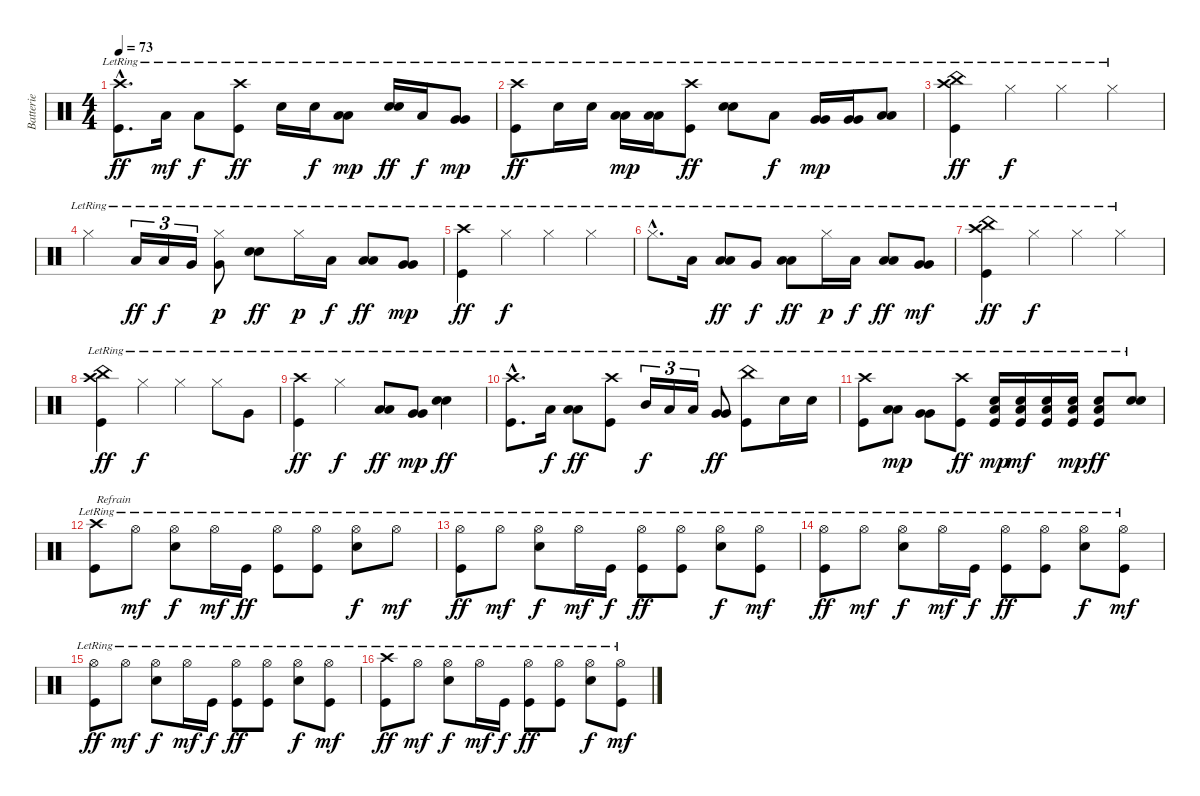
\track ("Batterie" "Batterie") {instrument percussion}
\staff {score}
\articulation defaults
\ts (4 4)
\tempo 73
\clef neutral
\ks c
("Crash high (hit)"{hac lr} "Kick (hit)"{hac lr}).8{d dy ff} "Low Tom (hit)"{lr}.16{dy mf} "Low Tom (hit)"{lr}.8{dy f} ("Crash high (hit)"{lr} "Kick (hit)"{lr}).8{dy ff} "Snare (hit) 2"{lr}.16 "Snare (hit) 2"{lr}.16{dy f} ("Low Tom (hit)"{lr} "Low Tom (hit)"{lr}).8{bu 60 dy mp} ("Snare (hit) 2"{lr} "Snare (hit) 2"{lr}).16{bu 120 dy ff} "Low Tom (hit)"{lr}.16{dy f} ("Very Low Tom (hit)"{lr} "Very Low Tom (hit)"{lr}).8{bu 60 dy mp} |
("Crash high (hit)"{lr} "Kick (hit)"{lr}).8{dy ff} "Snare (hit) 2"{lr}.16 "Snare (hit) 2"{lr}.16 ("Low Tom (hit)"{lr} "Low Tom (hit)"{lr}).16{bu 60 dy mp} ("Low Tom (hit)"{lr} "Low Tom (hit)"{lr}).16{bu 60} ("Crash high (hit)"{lr} "Kick (hit)"{lr}).8{dy ff} ("Snare (hit) 2"{lr} "Snare (hit) 2"{lr}).8{bu 120} "Low Tom (hit)"{lr}.8{dy f} ("Very Low Tom (hit)"{lr} "Very Low Tom (hit)"{lr}).16{bu 60 dy mp} ("Very Low Tom (hit)"{lr} "Very Low Tom (hit)"{lr}).16{bu 60} ("Low Floor Tom (hit)"{lr} "Low Floor Tom (hit)"{lr}).8{bu 60} |
("Crash high (hit)"{lr} "China (hit)"{lr} "Kick (hit)"{lr}).4{dy ff} "Hi-Hat (closed)"{lr}.4{dy f} "Hi-Hat (closed)"{lr}.4 "Hi-Hat (closed)"{lr}.4 |
"Hi-Hat (closed)"{lr}.4 "Low Tom (hit)"{lr}.16{tu (3 2) dy ff} "Low Tom (hit)"{lr}.16{tu (3 2) dy f} "Very Low Tom (hit)"{lr}.16{tu (3 2)} ("Hi-Hat (closed)"{lr} "Very Low Tom (hit)"{lr}).8{dy p} ("Snare (hit) 2"{lr} "Snare (hit) 2"{lr}).8{bu 60 dy ff} "Hi-Hat (closed)"{lr}.16{dy p} "Low Tom (hit)"{lr}.16{dy f} ("Low Tom (hit)"{lr} "Low Tom (hit)"{lr}).8{bu 60 dy ff} ("Very Low Tom (hit)"{lr} "Very Low Tom (hit)"{lr}).8{bu 60 dy mp} |
("Crash high (hit)"{lr} "Kick (hit)"{lr}).4{dy ff} "Hi-Hat (closed)"{lr}.4{dy f} "Hi-Hat (closed)"{lr}.4 "Hi-Hat (closed)"{lr}.4 |
"Hi-Hat (closed)"{hac lr}.8{d} "Low Tom (hit)"{lr}.16 ("Low Tom (hit)"{lr} "Low Tom (hit)"{lr}).8{bu 60 dy ff} "Very Low Tom (hit)"{lr}.8{dy f} ("Low Floor Tom (hit)"{lr} "Low Floor Tom (hit)"{lr}).8{bu 60 dy ff} "Hi-Hat (closed)"{lr}.16{dy p} "Low Tom (hit)"{lr}.16{dy f} ("Low Tom (hit)"{lr} "Low Tom (hit)"{lr}).8{bu 60 dy ff} ("Very Low Tom (hit)"{lr} "Very Low Tom (hit)"{lr}).8{bu 60 dy mf} |
("Crash high (hit)"{lr} "China (hit)"{lr} "Kick (hit)"{lr}).4{dy ff} "Hi-Hat (closed)"{lr}.4{dy f} "Hi-Hat (closed)"{lr}.4 "Hi-Hat (closed)"{lr}.4 |
("China (hit)"{lr} "Crash high (hit)"{lr} "Kick (hit)"{lr}).4{dy ff} "Hi-Hat (closed)"{lr}.4{dy f} "Hi-Hat (closed)"{lr}.4 "Hi-Hat (closed)"{lr}.8 "Very Low Tom (hit)"{lr}.8 |
("Crash high (hit)"{lr} "Kick (hit)"{lr}).4{dy ff} "Hi-Hat (closed)"{lr}.4{dy f} ("Low Tom (hit)"{lr} "Low Tom (hit)"{lr}).8{bu 60 dy ff} ("Very Low Tom (hit)"{lr} "Very Low Tom (hit)"{lr}).8{bu 60 dy mp} ("Snare (hit) 2"{lr} "Snare (hit) 2"{lr}).4{bu 60 dy ff} |
("Crash high (hit)"{hac lr} "Kick (hit)"{hac lr}).8{d} "Low Tom (hit)"{lr}.16{dy f} ("Low Tom (hit)"{lr} "Low Tom (hit)"{lr}).8{bu 60 dy ff} ("Crash high (hit)"{lr} "Kick (hit)"{lr}).8 "Mid Tom (hit)"{lr}.16{tu (3 2) dy f} "Low Tom (hit)"{lr}.16{tu (3 2)} "Low Tom (hit)"{lr}.16{tu (3 2)} ("Very Low Tom (hit)"{lr} "Very Low Tom (hit)"{lr}).8{bu 60 dy ff} ("China (hit)"{lr} "Kick (hit)"{lr}).8 "Snare (hit) 2"{lr}.16 "Snare (hit) 2"{lr}.16 |
("Crash high (hit)"{lr} "Kick (hit)"{lr}).8 ("Low Tom (hit)"{lr} "Low Tom (hit)"{lr}).8{bu 60 dy mp} ("Very Low Tom (hit)"{lr} "Very Low Tom (hit)"{lr}).8{bu 60} ("Crash high (hit)"{lr} "Kick (hit)"{lr}).8{dy ff} ("Low Floor Tom (hit)"{lr} "Snare (hit) 2"{lr} "Kick (hit)"{lr}).16{dy mp} ("Low Floor Tom (hit)"{lr} "Snare (hit) 2"{lr} "Kick (hit)"{lr}).16{dy mf} ("Low Floor Tom (hit)"{lr} "Snare (hit) 2"{lr} "Kick (hit)"{lr}).16 ("Low Floor Tom (hit)"{lr} "Snare (hit) 2"{lr} "Kick (hit)"{lr}).16{dy mp} ("Low Floor Tom (hit)"{lr} "Snare (hit) 2"{lr} "Kick (hit)"{lr}).8{dy ff} ("Snare (hit) 2"{lr} "Snare (hit) 2"{lr}).8{bu 60} |
("Crash high (hit)"{lr} "Kick (hit)"{lr}).8{txt "Refrain"} "Hi-Hat (open)"{lr}.8{dy mf} ("Hi-Hat (open)"{lr} "Snare (hit) 2"{lr}).8{dy f} "Hi-Hat (open)"{lr}.16{dy mf} "Kick (hit)"{lr}.16{dy ff} ("Hi-Hat (open)"{lr} "Kick (hit)"{lr}).8 ("Hi-Hat (open)"{lr} "Kick (hit)"{lr}).8 ("Hi-Hat (open)"{lr} "Snare (hit) 2"{lr}).8{dy f} "Hi-Hat (open)"{lr}.8{dy mf} |
("Hi-Hat (open)"{lr} "Kick (hit)"{lr}).8{dy ff} "Hi-Hat (open)"{lr}.8{dy mf} ("Hi-Hat (open)"{lr} "Snare (hit) 2"{lr}).8{dy f} "Hi-Hat (open)"{lr}.16{dy mf} "Kick (hit)"{lr}.16{dy f} ("Hi-Hat (open)"{lr} "Kick (hit)"{lr}).8{dy ff} ("Hi-Hat (open)"{lr} "Kick (hit)"{lr}).8 ("Hi-Hat (open)"{lr} "Snare (hit) 2"{lr}).8{dy f} ("Hi-Hat (open)"{lr} "Kick (hit)"{lr}).8{dy mf} |
("Hi-Hat (open)"{lr} "Kick (hit)"{lr}).8{dy ff} "Hi-Hat (open)"{lr}.8{dy mf} ("Hi-Hat (open)"{lr} "Snare (hit) 2"{lr}).8{dy f} "Hi-Hat (open)"{lr}.16{dy mf} "Kick (hit)"{lr}.16{dy f} ("Hi-Hat (open)"{lr} "Kick (hit)"{lr}).8{dy ff} ("Hi-Hat (open)"{lr} "Kick (hit)"{lr}).8 ("Hi-Hat (open)"{lr} "Snare (hit) 2"{lr}).8{dy f} ("Hi-Hat (open)"{lr} "Kick (hit)"{lr}).8{dy mf} |
("Hi-Hat (open)"{lr} "Kick (hit)"{lr}).8{dy ff} "Hi-Hat (open)"{lr}.8{dy mf} ("Hi-Hat (open)"{lr} "Snare (hit) 2"{lr}).8{dy f} "Hi-Hat (open)"{lr}.16{dy mf} "Kick (hit)"{lr}.16{dy f} ("Hi-Hat (open)"{lr} "Kick (hit)"{lr}).8{dy ff} ("Hi-Hat (open)"{lr} "Kick (hit)"{lr}).8 ("Hi-Hat (open)"{lr} "Snare (hit) 2"{lr}).8{dy f} ("Hi-Hat (open)"{lr} "Kick (hit)"{lr}).8{dy mf} |
("Crash high (hit)"{lr} "Kick (hit)"{lr}).8{dy ff} "Hi-Hat (open)"{lr}.8{dy mf} ("Hi-Hat (open)"{lr} "Snare (hit) 2"{lr}).8{dy f} "Hi-Hat (open)"{lr}.16{dy mf} "Kick (hit)"{lr}.16{dy f} ("Hi-Hat (open)"{lr} "Kick (hit)"{lr}).8{dy ff} ("Hi-Hat (open)"{lr} "Kick (hit)"{lr}).8 ("Hi-Hat (open)"{lr} "Snare (hit) 2"{lr}).8{dy f} ("Hi-Hat (open)"{lr} "Kick (hit)"{lr}).8{dy mf}
